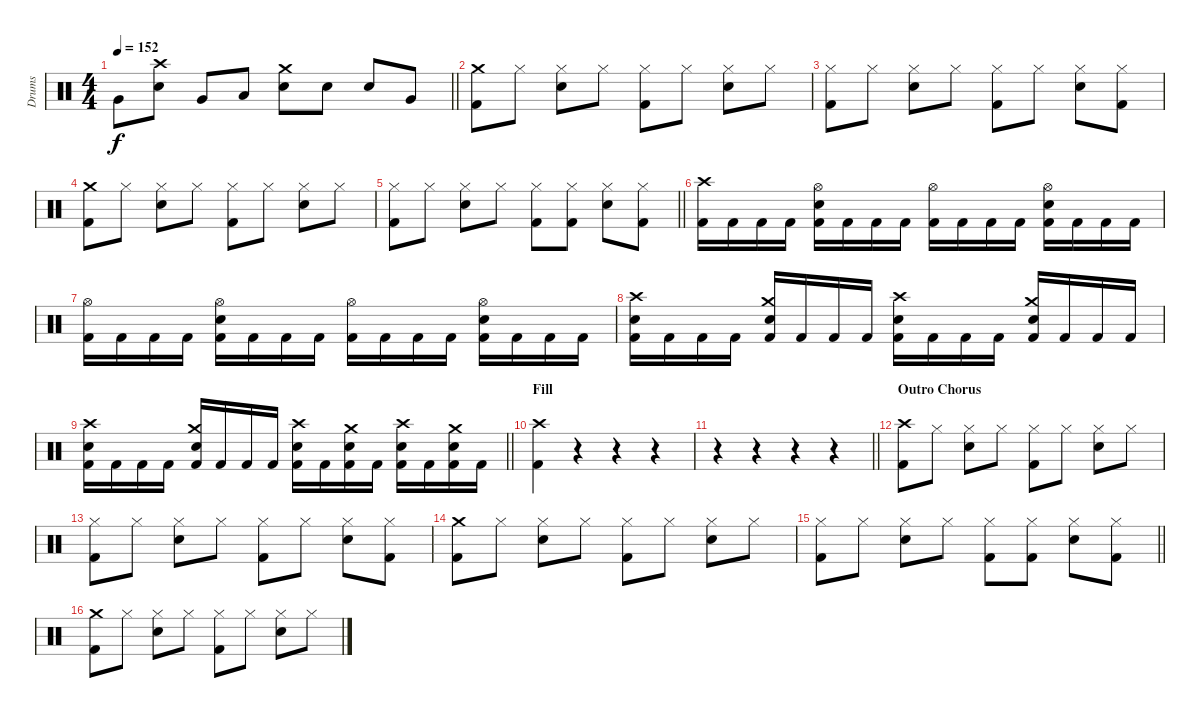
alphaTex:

\track ("Drums" "Drums") {instrument percussion}
\staff
\articulation defaults
\ts (4 4)
\tempo 152
\clef neutral
\barLineRight lightlight
\ks c "Very Low Tom (hit)".8{dy f}
("Crash high (hit)" "Electric Snare (hit)").8 "Very Low Tom (hit)".8 "Low Floor Tom (hit)".8 ("Crash medium (hit)" "Electric Snare (hit)").8 "Electric Snare (hit)".8 "Electric Snare (hit)".8 "Very Low Tom (hit)".8 |
("Crash medium (hit)" "Kick (hit) 2").8 "Hi-Hat (closed)".8 ("Hi-Hat (closed)" "Electric Snare (hit)").8 "Hi-Hat (closed)".8 ("Hi-Hat (closed)" "Kick (hit) 2").8 "Hi-Hat (closed)".8 ("Hi-Hat (closed)" "Electric Snare (hit)").8 "Hi-Hat (closed)".8 |
("Hi-Hat (closed)" "Kick (hit) 2").8 "Hi-Hat (closed)".8 ("Hi-Hat (closed)" "Electric Snare (hit)").8 "Hi-Hat (closed)".8 ("Hi-Hat (closed)" "Kick (hit) 2").8 "Hi-Hat (closed)".8 ("Hi-Hat (closed)" "Electric Snare (hit)").8 ("Hi-Hat (closed)" "Kick (hit) 2").8 |
("Crash medium (hit)" "Kick (hit) 2").8 "Hi-Hat (closed)".8 ("Hi-Hat (closed)" "Electric Snare (hit)").8 "Hi-Hat (closed)".8 ("Hi-Hat (closed)" "Kick (hit) 2").8 "Hi-Hat (closed)".8 ("Hi-Hat (closed)" "Electric Snare (hit)").8 "Hi-Hat (closed)".8 |
\barLineRight lightlight
("Hi-Hat (closed)" "Kick (hit) 2").8 "Hi-Hat (closed)".8 ("Hi-Hat (closed)" "Electric Snare (hit)").8 "Hi-Hat (closed)".8 ("Hi-Hat (closed)" "Kick (hit) 2").8 ("Hi-Hat (closed)" "Kick (hit) 2").8 ("Hi-Hat (closed)" "Electric Snare (hit)").8 ("Hi-Hat (closed)" "Kick (hit) 2").8 |
("Crash high (hit)" "Kick (hit) 2").16 "Kick (hit) 2".16 "Kick (hit) 2".16 "Kick (hit) 2".16 ("Hi-Hat (open)" "Electric Snare (hit)" "Kick (hit) 2").16 "Kick (hit) 2".16 "Kick (hit) 2".16 "Kick (hit) 2".16 ("Hi-Hat (open)" "Kick (hit) 2").16 "Kick (hit) 2".16 "Kick (hit) 2".16 "Kick (hit) 2".16 ("Hi-Hat (open)" "Electric Snare (hit)" "Kick (hit) 2").16 "Kick (hit) 2".16 "Kick (hit) 2".16 "Kick (hit) 2".16 |
("Hi-Hat (open)" "Kick (hit) 2").16 "Kick (hit) 2".16 "Kick (hit) 2".16 "Kick (hit) 2".16 ("Hi-Hat (open)" "Electric Snare (hit)" "Kick (hit) 2").16 "Kick (hit) 2".16 "Kick (hit) 2".16 "Kick (hit) 2".16 ("Hi-Hat (open)" "Kick (hit) 2").16 "Kick (hit) 2".16 "Kick (hit) 2".16 "Kick (hit) 2".16 ("Hi-Hat (open)" "Electric Snare (hit)" "Kick (hit) 2").16 "Kick (hit) 2".16 "Kick (hit) 2".16 "Kick (hit) 2".16 |
("Crash high (hit)" "Electric Snare (hit)" "Kick (hit) 2").16 "Kick (hit) 2".16 "Kick (hit) 2".16 "Kick (hit) 2".16 ("Crash medium (hit)" "Electric Snare (hit)" "Kick (hit) 2").16 "Kick (hit) 2".16 "Kick (hit) 2".16 "Kick (hit) 2".16 ("Crash high (hit)" "Electric Snare (hit)" "Kick (hit) 2").16 "Kick (hit) 2".16 "Kick (hit) 2".16 "Kick (hit) 2".16 ("Crash medium (hit)" "Electric Snare (hit)" "Kick (hit) 2").16 "Kick (hit) 2".16 "Kick (hit) 2".16 "Kick (hit) 2".16 |
\barLineRight lightlight
("Crash high (hit)" "Electric Snare (hit)" "Kick (hit) 2").16 "Kick (hit) 2".16 "Kick (hit) 2".16 "Kick (hit) 2".16 ("Crash medium (hit)" "Electric Snare (hit)" "Kick (hit) 2").16 "Kick (hit) 2".16 "Kick (hit) 2".16 "Kick (hit) 2".16 ("Crash high (hit)" "Electric Snare (hit)" "Kick (hit) 2").16 "Kick (hit) 2".16 ("Crash medium (hit)" "Electric Snare (hit)" "Kick (hit) 2").16 "Kick (hit) 2".16 ("Crash high (hit)" "Electric Snare (hit)" "Kick (hit) 2").16 "Kick (hit) 2".16 ("Crash medium (hit)" "Electric Snare (hit)" "Kick (hit) 2").16 "Kick (hit) 2".16 |
\section ("" "Fill")
("Crash high (hit)" "Kick (hit) 2").4 r.4 r.4 r.4 |
\barLineRight lightlight
r.4 r.4 r.4 r.4 |
\section ("" "Outro Chorus")
("Crash high (hit)" "Kick (hit) 2").8 "Hi-Hat (closed)".8 ("Hi-Hat (closed)" "Electric Snare (hit)").8 "Hi-Hat (closed)".8 ("Hi-Hat (closed)" "Kick (hit) 2").8 "Hi-Hat (closed)".8 ("Hi-Hat (closed)" "Electric Snare (hit)").8 "Hi-Hat (closed)".8 |
("Hi-Hat (closed)" "Kick (hit) 2").8 "Hi-Hat (closed)".8 ("Hi-Hat (closed)" "Electric Snare (hit)").8 "Hi-Hat (closed)".8 ("Hi-Hat (closed)" "Kick (hit) 2").8 "Hi-Hat (closed)".8 ("Hi-Hat (closed)" "Electric Snare (hit)").8 ("Hi-Hat (closed)" "Kick (hit) 2").8 |
("Crash medium (hit)" "Kick (hit) 2").8 "Hi-Hat (closed)".8 ("Hi-Hat (closed)" "Electric Snare (hit)").8 "Hi-Hat (closed)".8 ("Hi-Hat (closed)" "Kick (hit) 2").8 "Hi-Hat (closed)".8 ("Hi-Hat (closed)" "Electric Snare (hit)").8 "Hi-Hat (closed)".8 |
\barLineRight lightlight
("Hi-Hat (closed)" "Kick (hit) 2").8 "Hi-Hat (closed)".8 ("Hi-Hat (closed)" "Electric Snare (hit)").8 "Hi-Hat (closed)".8 ("Hi-Hat (closed)" "Kick (hit) 2").8 ("Hi-Hat (closed)" "Kick (hit) 2").8 ("Hi-Hat (closed)" "Electric Snare (hit)").8 ("Hi-Hat (closed)" "Kick (hit) 2").8 |
("Crash medium (hit)" "Kick (hit) 2").8 "Hi-Hat (closed)".8 ("Hi-Hat (closed)" "Electric Snare (hit)").8 "Hi-Hat (closed)".8 ("Hi-Hat (closed)" "Kick (hit) 2").8 "Hi-Hat (closed)".8 ("Hi-Hat (closed)" "Electric Snare (hit)").8 "Hi-Hat (closed)".8
